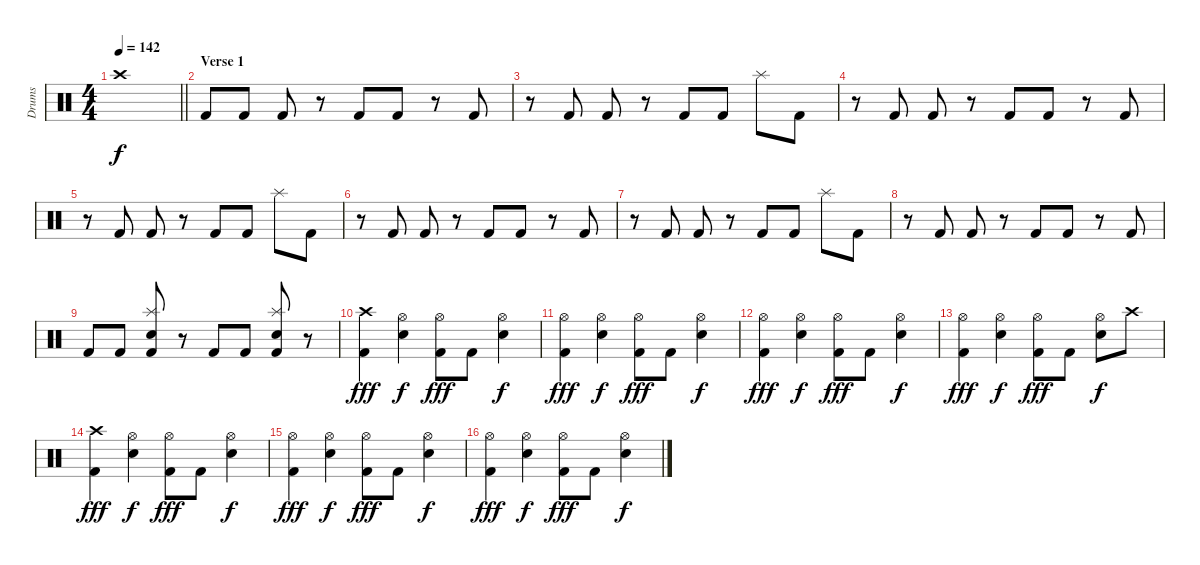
\track ("Drums" "Drums") {instrument percussion}
\staff {score}
\articulation defaults
\ts (4 4)
\tempo 142
\clef neutral
\barLineRight lightlight
\ks c "Crash high (hit)".1{dy f}
|
\section ("" "Verse 1")
"Kick (hit) 2".8 "Kick (hit) 2".8 "Kick (hit) 2".8 r.8 "Kick (hit) 2".8 "Kick (hit) 2".8 r.8 "Kick (hit) 2".8 |
r.8 "Kick (hit) 2".8 "Kick (hit) 2".8 r.8 "Kick (hit) 2".8 "Kick (hit) 2".8 "Splash (hit)".8 "Kick (hit) 2".8 |
r.8 "Kick (hit) 2".8 "Kick (hit) 2".8 r.8 "Kick (hit) 2".8 "Kick (hit) 2".8 r.8 "Kick (hit) 2".8 |
r.8 "Kick (hit) 2".8 "Kick (hit) 2".8 r.8 "Kick (hit) 2".8 "Kick (hit) 2".8 "Splash (hit)".8 "Kick (hit) 2".8 |
r.8 "Kick (hit) 2".8 "Kick (hit) 2".8 r.8 "Kick (hit) 2".8 "Kick (hit) 2".8 r.8 "Kick (hit) 2".8 |
r.8 "Kick (hit) 2".8 "Kick (hit) 2".8 r.8 "Kick (hit) 2".8 "Kick (hit) 2".8 "Splash (hit)".8 "Kick (hit) 2".8 |
r.8 "Kick (hit) 2".8 "Kick (hit) 2".8 r.8 "Kick (hit) 2".8 "Kick (hit) 2".8 r.8 "Kick (hit) 2".8 |
"Kick (hit) 2".8 "Kick (hit) 2".8 ("Splash (hit)" "Snare (hit) 2" "Kick (hit) 2").8 r.8 "Kick (hit) 2".8 "Kick (hit) 2".8 ("Splash (hit)" "Snare (hit) 2" "Kick (hit) 2").8 r.8 |
("Crash high (hit)" "Kick (hit) 2").4{dy fff} ("Hi-Hat (open)" "Snare (hit) 2").4{dy f} ("Hi-Hat (open)" "Kick (hit) 2").8{dy fff} "Kick (hit) 2".8 ("Hi-Hat (open)" "Snare (hit) 2").4{dy f} |
("Hi-Hat (open)" "Kick (hit) 2").4{dy fff} ("Hi-Hat (open)" "Snare (hit) 2").4{dy f} ("Hi-Hat (open)" "Kick (hit) 2").8{dy fff} "Kick (hit) 2".8 ("Hi-Hat (open)" "Snare (hit) 2").4{dy f} |
("Hi-Hat (open)" "Kick (hit) 2").4{dy fff} ("Hi-Hat (open)" "Snare (hit) 2").4{dy f} ("Hi-Hat (open)" "Kick (hit) 2").8{dy fff} "Kick (hit) 2".8 ("Hi-Hat (open)" "Snare (hit) 2").4{dy f} |
("Hi-Hat (open)" "Kick (hit) 2").4{dy fff} ("Hi-Hat (open)" "Snare (hit) 2").4{dy f} ("Hi-Hat (open)" "Kick (hit) 2").8{dy fff} "Kick (hit) 2".8 ("Hi-Hat (open)" "Snare (hit) 2").8{dy f} "Crash high (hit)".8 |
("Crash high (hit)" "Kick (hit) 2").4{dy fff} ("Hi-Hat (open)" "Snare (hit) 2").4{dy f} ("Hi-Hat (open)" "Kick (hit) 2").8{dy fff} "Kick (hit) 2".8 ("Hi-Hat (open)" "Snare (hit) 2").4{dy f} |
("Hi-Hat (open)" "Kick (hit) 2").4{dy fff} ("Hi-Hat (open)" "Snare (hit) 2").4{dy f} ("Hi-Hat (open)" "Kick (hit) 2").8{dy fff} "Kick (hit) 2".8 ("Hi-Hat (open)" "Snare (hit) 2").4{dy f} |
("Hi-Hat (open)" "Kick (hit) 2").4{dy fff} ("Hi-Hat (open)" "Snare (hit) 2").4{dy f} ("Hi-Hat (open)" "Kick (hit) 2").8{dy fff} "Kick (hit) 2".8 ("Hi-Hat (open)" "Snare (hit) 2").4{dy f}
